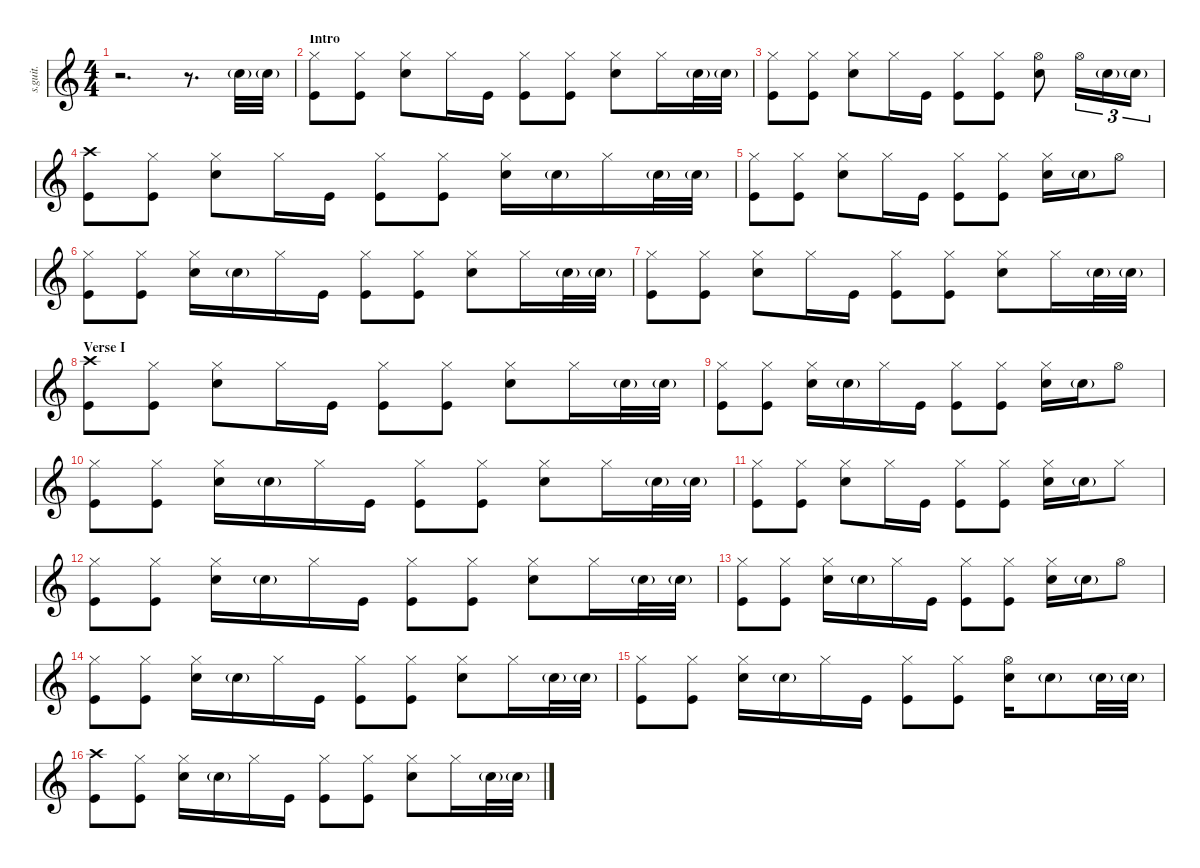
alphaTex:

\defaultSystemsLayout 4
\hideDynamics
\bracketExtendMode nobrackets
\track ("Chad Smith" "s.guit.") {instrument percussion}
\staff {score}
\articulation defaults
\ts (4 4)
\beaming (8 2 2 2 2)
\tempo (96 hide)
\clef g2
\ks c
r.2{d dy pp} r.8{d} "Snare (hit) 2"{g}.32 "Snare (hit) 2"{g}.32 |
\section ("" "Intro")
("Hi-Hat (closed)" "Kick (hit)").8{dy f} ("Hi-Hat (closed)" "Kick (hit)").8{dy p} ("Hi-Hat (closed)" "Snare (hit) 2").8{dy f} "Hi-Hat (closed)".16{dy p} "Kick (hit)".16{dy f} ("Hi-Hat (closed)" "Kick (hit)").8 ("Hi-Hat (closed)" "Kick (hit)").8{dy p} ("Hi-Hat (closed)" "Snare (hit) 2").8{dy f} "Hi-Hat (closed)".16{dy p} "Snare (hit) 2"{g}.32{dy pp} "Snare (hit) 2"{g}.32 |
("Hi-Hat (closed)" "Kick (hit)").8{dy f} ("Hi-Hat (closed)" "Kick (hit)").8{dy p} ("Hi-Hat (closed)" "Snare (hit) 2").8{dy f} "Hi-Hat (closed)".16{dy p} "Kick (hit)".16{dy f} ("Hi-Hat (closed)" "Kick (hit)").8 ("Hi-Hat (closed)" "Kick (hit)").8{dy p} ("Hi-Hat (open)" "Snare (hit) 2").8{dy f} "Hi-Hat (open)".16{tu (3 2) dy p} "Snare (hit) 2"{g}.16{tu (3 2) dy pp} "Snare (hit) 2"{g}.16{tu (3 2)} |
("Crash high (hit)" "Kick (hit)").8{dy f} ("Hi-Hat (closed)" "Kick (hit)").8{dy p} ("Hi-Hat (closed)" "Snare (hit) 2").8{dy f} "Hi-Hat (closed)".16{dy p} "Kick (hit)".16{dy f} ("Hi-Hat (closed)" "Kick (hit)").8 ("Hi-Hat (closed)" "Kick (hit)").8{dy p} ("Hi-Hat (closed)" "Snare (hit) 2").16{dy f} "Snare (hit) 2"{g}.16{dy pp} "Hi-Hat (closed)".16{dy p} "Snare (hit) 2"{g}.32{dy pp} "Snare (hit) 2"{g}.32 |
("Hi-Hat (closed)" "Kick (hit)").8{dy f} ("Hi-Hat (closed)" "Kick (hit)").8{dy p} ("Hi-Hat (closed)" "Snare (hit) 2").8{dy f} "Hi-Hat (closed)".16{dy p} "Kick (hit)".16{dy f} ("Hi-Hat (closed)" "Kick (hit)").8 ("Hi-Hat (closed)" "Kick (hit)").8{dy p} ("Hi-Hat (closed)" "Snare (hit) 2").16{dy f} "Snare (hit) 2"{g}.16{dy pp} "Hi-Hat (open)".8{dy f} |
("Hi-Hat (closed)" "Kick (hit)").8 ("Hi-Hat (closed)" "Kick (hit)").8{dy p} ("Hi-Hat (closed)" "Snare (hit) 2").16{dy f} "Snare (hit) 2"{g}.16{dy pp} "Hi-Hat (closed)".16{dy p} "Kick (hit)".16{dy f} ("Hi-Hat (closed)" "Kick (hit)").8 ("Hi-Hat (closed)" "Kick (hit)").8{dy p} ("Hi-Hat (closed)" "Snare (hit) 2").8{dy f} "Hi-Hat (closed)".16{dy p} "Snare (hit) 2"{g}.32{dy pp} "Snare (hit) 2"{g}.32 |
("Hi-Hat (closed)" "Kick (hit)").8{dy f} ("Hi-Hat (closed)" "Kick (hit)").8{dy p} ("Hi-Hat (closed)" "Snare (hit) 2").8{dy f} "Hi-Hat (closed)".16{dy p} "Kick (hit)".16{dy f} ("Hi-Hat (closed)" "Kick (hit)").8 ("Hi-Hat (closed)" "Kick (hit)").8{dy p} ("Hi-Hat (closed)" "Snare (hit) 2").8{dy f} "Hi-Hat (closed)".16{dy p} "Snare (hit) 2"{g}.32{dy pp} "Snare (hit) 2"{g}.32 |
\section ("" "Verse I")
("Crash high (hit)" "Kick (hit)").8{dy f} ("Hi-Hat (closed)" "Kick (hit)").8{dy p} ("Hi-Hat (closed)" "Snare (hit) 2").8{dy f} "Hi-Hat (closed)".16{dy p} "Kick (hit)".16{dy f} ("Hi-Hat (closed)" "Kick (hit)").8 ("Hi-Hat (closed)" "Kick (hit)").8{dy p} ("Hi-Hat (closed)" "Snare (hit) 2").8{dy f} "Hi-Hat (closed)".16{dy p} "Snare (hit) 2"{g}.32{dy pp} "Snare (hit) 2"{g}.32 |
("Hi-Hat (closed)" "Kick (hit)").8{dy f} ("Hi-Hat (closed)" "Kick (hit)").8{dy p} ("Hi-Hat (closed)" "Snare (hit) 2").16{dy f} "Snare (hit) 2"{g}.16{dy pp} "Hi-Hat (closed)".16{dy p} "Kick (hit)".16{dy f} ("Hi-Hat (closed)" "Kick (hit)").8 ("Hi-Hat (closed)" "Kick (hit)").8{dy p} ("Hi-Hat (closed)" "Snare (hit) 2").16{dy f} "Snare (hit) 2"{g}.16{dy pp} "Hi-Hat (open)".8{dy f} |
("Hi-Hat (closed)" "Kick (hit)").8 ("Hi-Hat (closed)" "Kick (hit)").8{dy p} ("Hi-Hat (closed)" "Snare (hit) 2").16{dy f} "Snare (hit) 2"{g}.16{dy pp} "Hi-Hat (closed)".16{dy p} "Kick (hit)".16{dy f} ("Hi-Hat (closed)" "Kick (hit)").8 ("Hi-Hat (closed)" "Kick (hit)").8{dy p} ("Hi-Hat (closed)" "Snare (hit) 2").8{dy f} "Hi-Hat (closed)".16{dy p} "Snare (hit) 2"{g}.32{dy pp} "Snare (hit) 2"{g}.32 |
("Hi-Hat (closed)" "Kick (hit)").8{dy f} ("Hi-Hat (closed)" "Kick (hit)").8{dy p} ("Hi-Hat (closed)" "Snare (hit) 2").8{dy f} "Hi-Hat (closed)".16{dy p} "Kick (hit)".16{dy f} ("Hi-Hat (closed)" "Kick (hit)").8 ("Hi-Hat (closed)" "Kick (hit)").8{dy p} ("Hi-Hat (closed)" "Snare (hit) 2").16{dy f} "Snare (hit) 2"{g}.16{dy pp} "Hi-Hat (closed)".8{dy p} |
("Hi-Hat (closed)" "Kick (hit)").8{dy f} ("Hi-Hat (closed)" "Kick (hit)").8{dy p} ("Hi-Hat (closed)" "Snare (hit) 2").16{dy f} "Snare (hit) 2"{g}.16{dy pp} "Hi-Hat (closed)".16{dy p} "Kick (hit)".16{dy f} ("Hi-Hat (closed)" "Kick (hit)").8 ("Hi-Hat (closed)" "Kick (hit)").8{dy p} ("Hi-Hat (closed)" "Snare (hit) 2").8{dy f} "Hi-Hat (closed)".16{dy p} "Snare (hit) 2"{g}.32{dy pp} "Snare (hit) 2"{g}.32 |
("Hi-Hat (closed)" "Kick (hit)").8{dy f} ("Hi-Hat (closed)" "Kick (hit)").8{dy p} ("Hi-Hat (closed)" "Snare (hit) 2").16{dy f} "Snare (hit) 2"{g}.16{dy pp} "Hi-Hat (closed)".16{dy p} "Kick (hit)".16{dy f} ("Hi-Hat (closed)" "Kick (hit)").8 ("Hi-Hat (closed)" "Kick (hit)").8{dy p} ("Hi-Hat (closed)" "Snare (hit) 2").16{dy f} "Snare (hit) 2"{g}.16{dy pp} "Hi-Hat (open)".8{dy f} |
("Hi-Hat (closed)" "Kick (hit)").8 ("Hi-Hat (closed)" "Kick (hit)").8{dy p} ("Hi-Hat (closed)" "Snare (hit) 2").16{dy f} "Snare (hit) 2"{g}.16{dy pp} "Hi-Hat (closed)".16{dy p} "Kick (hit)".16{dy f} ("Hi-Hat (closed)" "Kick (hit)").8 ("Hi-Hat (closed)" "Kick (hit)").8{dy p} ("Hi-Hat (closed)" "Snare (hit) 2").8{dy f} "Hi-Hat (closed)".16{dy p} "Snare (hit) 2"{g}.32{dy pp} "Snare (hit) 2"{g}.32 |
("Hi-Hat (closed)" "Kick (hit)").8{dy f} ("Hi-Hat (closed)" "Kick (hit)").8{dy p} ("Hi-Hat (closed)" "Snare (hit) 2").16{dy f} "Snare (hit) 2"{g}.16{dy pp} "Hi-Hat (closed)".16{dy p} "Kick (hit)".16{dy f} ("Hi-Hat (closed)" "Kick (hit)").8 ("Hi-Hat (closed)" "Kick (hit)").8{dy p} ("Hi-Hat (open)" "Snare (hit) 2").16{dy f} "Snare (hit) 2"{g}.8{dy pp} "Snare (hit) 2"{g}.32 "Snare (hit) 2"{g}.32 |
("Crash high (hit)" "Kick (hit)").8{dy f} ("Hi-Hat (closed)" "Kick (hit)").8{dy p} ("Hi-Hat (closed)" "Snare (hit) 2").16{dy f} "Snare (hit) 2"{g}.16{dy pp} "Hi-Hat (closed)".16{dy p} "Kick (hit)".16{dy f} ("Hi-Hat (closed)" "Kick (hit)").8 ("Hi-Hat (closed)" "Kick (hit)").8{dy p} ("Hi-Hat (closed)" "Snare (hit) 2").8{dy f} "Hi-Hat (closed)".16{dy p} "Snare (hit) 2"{g}.32{dy pp} "Snare (hit) 2"{g}.32
